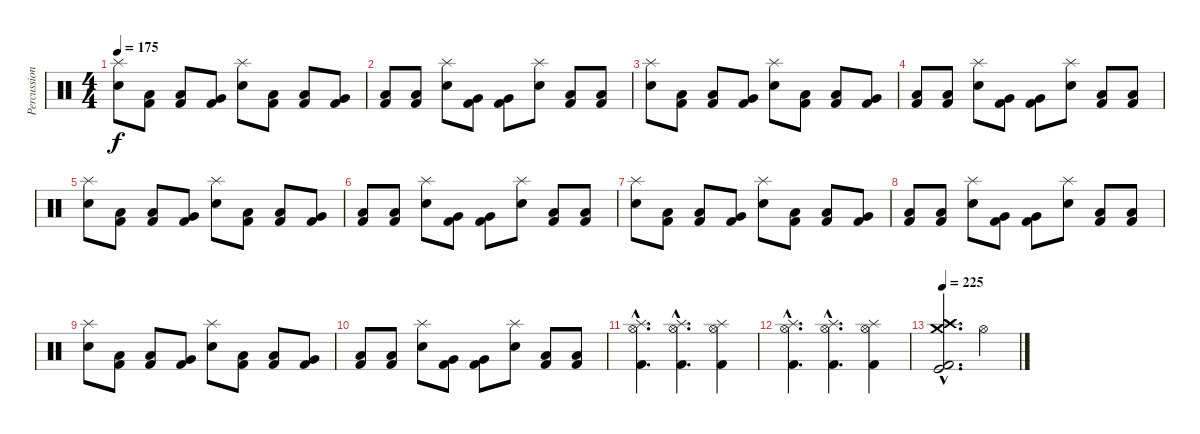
\track ("Percussions" "Percussion") {instrument percussion}
\staff {score}
\articulation defaults
\ts (4 4)
\tempo 175
\clef neutral
\ks c
("Splash (hit)" "Electric Snare (hit)").8{dy f} ("Low Tom (hit)" "Kick (hit) 2").8 ("Low Tom (hit)" "Kick (hit) 2").8 ("Very Low Tom (hit)" "Kick (hit) 2").8 ("Splash (hit)" "Electric Snare (hit)").8 ("Low Tom (hit)" "Kick (hit) 2").8 ("Low Tom (hit)" "Kick (hit) 2").8 ("Very Low Tom (hit)" "Kick (hit) 2").8 |
("Low Tom (hit)" "Kick (hit) 2").8 ("Low Tom (hit)" "Kick (hit) 2").8 ("Splash (hit)" "Electric Snare (hit)").8 ("Very Low Tom (hit)" "Kick (hit) 2").8 ("Very Low Tom (hit)" "Kick (hit) 2").8 ("Splash (hit)" "Electric Snare (hit)").8 ("Low Floor Tom (hit)" "Kick (hit) 2").8 ("Low Floor Tom (hit)" "Kick (hit) 2").8 |
("Splash (hit)" "Electric Snare (hit)").8 ("Low Tom (hit)" "Kick (hit) 2").8 ("Low Tom (hit)" "Kick (hit) 2").8 ("Very Low Tom (hit)" "Kick (hit) 2").8 ("Splash (hit)" "Electric Snare (hit)").8 ("Low Tom (hit)" "Kick (hit) 2").8 ("Low Tom (hit)" "Kick (hit) 2").8 ("Very Low Tom (hit)" "Kick (hit) 2").8 |
("Low Tom (hit)" "Kick (hit) 2").8 ("Low Tom (hit)" "Kick (hit) 2").8 ("Splash (hit)" "Electric Snare (hit)").8 ("Very Low Tom (hit)" "Kick (hit) 2").8 ("Very Low Tom (hit)" "Kick (hit) 2").8 ("Splash (hit)" "Electric Snare (hit)").8 ("Low Floor Tom (hit)" "Kick (hit) 2").8 ("Low Floor Tom (hit)" "Kick (hit) 2").8 |
("Splash (hit)" "Electric Snare (hit)").8 ("Low Tom (hit)" "Kick (hit) 2").8 ("Low Tom (hit)" "Kick (hit) 2").8 ("Very Low Tom (hit)" "Kick (hit) 2").8 ("Splash (hit)" "Electric Snare (hit)").8 ("Low Tom (hit)" "Kick (hit) 2").8 ("Low Tom (hit)" "Kick (hit) 2").8 ("Very Low Tom (hit)" "Kick (hit) 2").8 |
("Low Tom (hit)" "Kick (hit) 2").8 ("Low Tom (hit)" "Kick (hit) 2").8 ("Splash (hit)" "Electric Snare (hit)").8 ("Very Low Tom (hit)" "Kick (hit) 2").8 ("Very Low Tom (hit)" "Kick (hit) 2").8 ("Splash (hit)" "Electric Snare (hit)").8 ("Low Floor Tom (hit)" "Kick (hit) 2").8 ("Low Floor Tom (hit)" "Kick (hit) 2").8 |
("Splash (hit)" "Electric Snare (hit)").8 ("Low Tom (hit)" "Kick (hit) 2").8 ("Low Tom (hit)" "Kick (hit) 2").8 ("Very Low Tom (hit)" "Kick (hit) 2").8 ("Splash (hit)" "Electric Snare (hit)").8 ("Low Tom (hit)" "Kick (hit) 2").8 ("Low Tom (hit)" "Kick (hit) 2").8 ("Very Low Tom (hit)" "Kick (hit) 2").8 |
("Low Tom (hit)" "Kick (hit) 2").8 ("Low Tom (hit)" "Kick (hit) 2").8 ("Splash (hit)" "Electric Snare (hit)").8 ("Very Low Tom (hit)" "Kick (hit) 2").8 ("Very Low Tom (hit)" "Kick (hit) 2").8 ("Splash (hit)" "Electric Snare (hit)").8 ("Low Floor Tom (hit)" "Kick (hit) 2").8 ("Low Floor Tom (hit)" "Kick (hit) 2").8 |
("Splash (hit)" "Electric Snare (hit)").8 ("Low Tom (hit)" "Kick (hit) 2").8 ("Low Tom (hit)" "Kick (hit) 2").8 ("Very Low Tom (hit)" "Kick (hit) 2").8 ("Splash (hit)" "Electric Snare (hit)").8 ("Low Tom (hit)" "Kick (hit) 2").8 ("Low Tom (hit)" "Kick (hit) 2").8 ("Very Low Tom (hit)" "Kick (hit) 2").8 |
("Low Tom (hit)" "Kick (hit) 2").8 ("Low Tom (hit)" "Kick (hit) 2").8 ("Splash (hit)" "Electric Snare (hit)").8 ("Very Low Tom (hit)" "Kick (hit) 2").8 ("Very Low Tom (hit)" "Kick (hit) 2").8 ("Splash (hit)" "Electric Snare (hit)").8 ("Low Floor Tom (hit)" "Kick (hit) 2").8 ("Low Floor Tom (hit)" "Kick (hit) 2").8 |
("Hi-Hat (open)"{hac} "Splash (hit)"{hac} "Kick (hit) 2"{hac}).4{d} ("Hi-Hat (open)"{hac} "Splash (hit)"{hac} "Kick (hit) 2"{hac}).4{d} ("Hi-Hat (open)" "Splash (hit)" "Kick (hit) 2").4 |
("Hi-Hat (open)"{hac} "Splash (hit)"{hac} "Kick (hit) 2"{hac}).4{d} ("Hi-Hat (open)"{hac} "Splash (hit)"{hac} "Kick (hit) 2"{hac}).4{d} ("Hi-Hat (open)" "Splash (hit)" "Kick (hit) 2").4 |
\tempo 225
("Crash medium (hit)"{hac} "Crash high (hit)"{hac} "Kick (hit)"{hac} "Kick (hit) 2"{hac}).2{d} "Hi-Hat (open)".4
